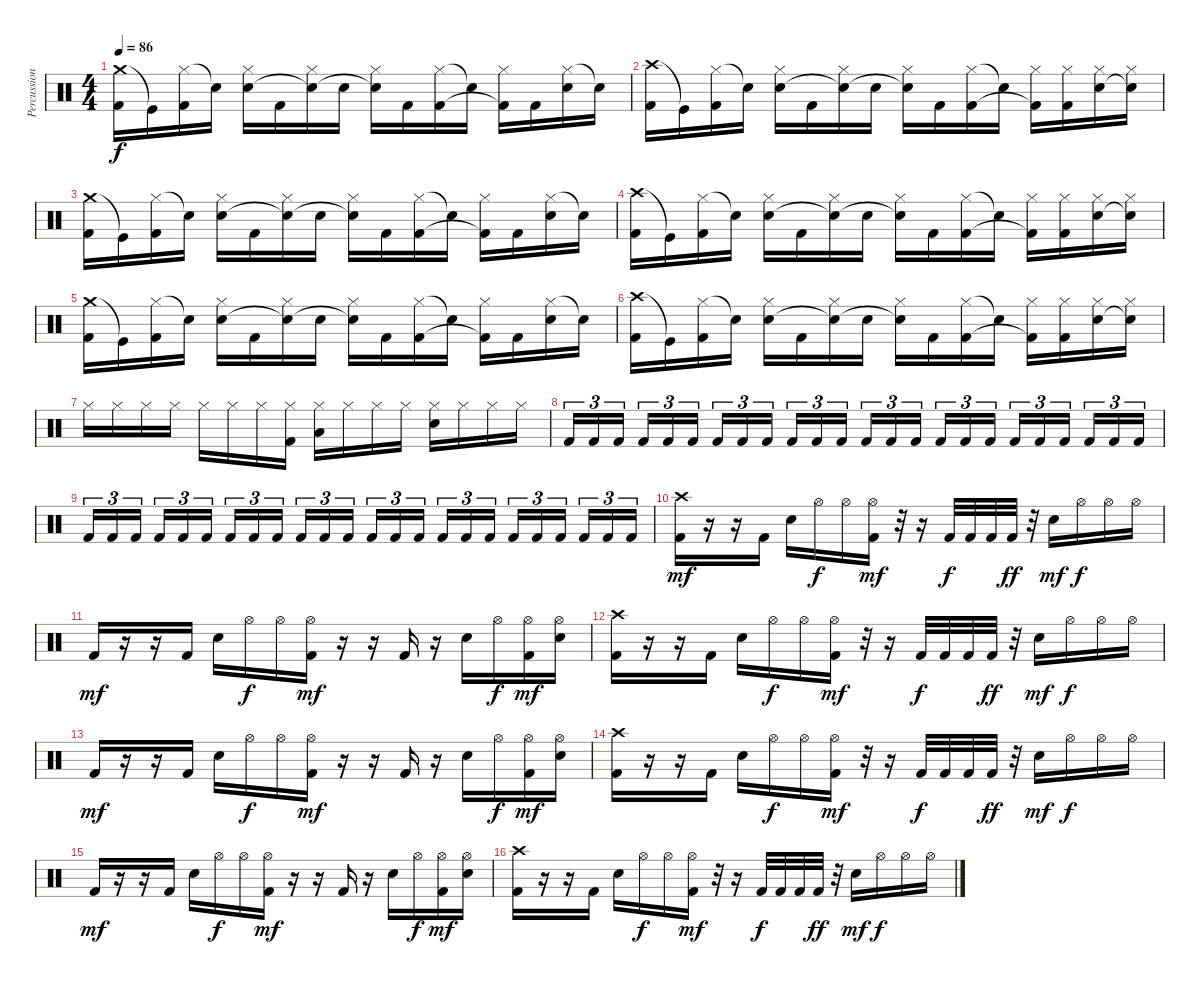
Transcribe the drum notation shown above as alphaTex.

\track ("Percussion" "Percussion") {instrument percussion}
\staff {score}
\articulation defaults
\ts (4 4)
\tempo 86
\clef neutral
\ks c
("Crash medium (hit)" "Kick (hit) 2").16{dy f} "Kick (hit)"{t}.16 ("Hi-Hat (closed)" "Kick (hit) 2").16 "Snare (hit)"{t}.16 ("Hi-Hat (closed)" "Electric Snare (hit)").16 "Kick (hit) 2".16 ("Hi-Hat (closed)" "Snare (hit)"{t}).16 "Electric Snare (hit)".16 ("Hi-Hat (closed)" "Snare (hit)"{t}).16 "Kick (hit) 2".16 ("Hi-Hat (closed)" "Kick (hit) 2").16 "Snare (hit)"{t}.16 ("Hi-Hat (closed)" "Kick (hit) 2"{t}).16 "Kick (hit) 2".16 ("Hi-Hat (closed)" "Electric Snare (hit)").16 "Snare (hit)"{t}.16 |
("Crash high (hit)" "Kick (hit) 2").16 "Kick (hit)"{t}.16 ("Hi-Hat (closed)" "Kick (hit) 2").16 "Snare (hit)"{t}.16 ("Hi-Hat (closed)" "Electric Snare (hit)").16 "Kick (hit) 2".16 ("Hi-Hat (closed)" "Snare (hit)"{t}).16 "Electric Snare (hit)".16 ("Hi-Hat (closed)" "Snare (hit)"{t}).16 "Kick (hit) 2".16 ("Hi-Hat (closed)" "Kick (hit) 2").16 "Snare (hit)"{t}.16 ("Hi-Hat (closed)" "Kick (hit) 2"{t}).16 ("Hi-Hat (closed)" "Kick (hit) 2").16 ("Hi-Hat (closed)" "Electric Snare (hit)").16 ("Hi-Hat (closed)" "Snare (hit)"{t}).16 |
("Crash medium (hit)" "Kick (hit) 2").16 "Kick (hit)"{t}.16 ("Hi-Hat (closed)" "Kick (hit) 2").16 "Snare (hit)"{t}.16 ("Hi-Hat (closed)" "Electric Snare (hit)").16 "Kick (hit) 2".16 ("Hi-Hat (closed)" "Snare (hit)"{t}).16 "Electric Snare (hit)".16 ("Hi-Hat (closed)" "Snare (hit)"{t}).16 "Kick (hit) 2".16 ("Hi-Hat (closed)" "Kick (hit) 2").16 "Snare (hit)"{t}.16 ("Hi-Hat (closed)" "Kick (hit) 2"{t}).16 "Kick (hit) 2".16 ("Hi-Hat (closed)" "Electric Snare (hit)").16 "Snare (hit)"{t}.16 |
("Crash high (hit)" "Kick (hit) 2").16 "Kick (hit)"{t}.16 ("Hi-Hat (closed)" "Kick (hit) 2").16 "Snare (hit)"{t}.16 ("Hi-Hat (closed)" "Electric Snare (hit)").16 "Kick (hit) 2".16 ("Hi-Hat (closed)" "Snare (hit)"{t}).16 "Electric Snare (hit)".16 ("Hi-Hat (closed)" "Snare (hit)"{t}).16 "Kick (hit) 2".16 ("Hi-Hat (closed)" "Kick (hit) 2").16 "Snare (hit)"{t}.16 ("Hi-Hat (closed)" "Kick (hit) 2"{t}).16 ("Hi-Hat (closed)" "Kick (hit) 2").16 ("Hi-Hat (closed)" "Electric Snare (hit)").16 ("Hi-Hat (closed)" "Snare (hit)"{t}).16 |
("Crash medium (hit)" "Kick (hit) 2").16 "Kick (hit)"{t}.16 ("Hi-Hat (closed)" "Kick (hit) 2").16 "Snare (hit)"{t}.16 ("Hi-Hat (closed)" "Electric Snare (hit)").16 "Kick (hit) 2".16 ("Hi-Hat (closed)" "Snare (hit)"{t}).16 "Electric Snare (hit)".16 ("Hi-Hat (closed)" "Snare (hit)"{t}).16 "Kick (hit) 2".16 ("Hi-Hat (closed)" "Kick (hit) 2").16 "Snare (hit)"{t}.16 ("Hi-Hat (closed)" "Kick (hit) 2"{t}).16 "Kick (hit) 2".16 ("Hi-Hat (closed)" "Electric Snare (hit)").16 "Snare (hit)"{t}.16 |
("Crash high (hit)" "Kick (hit) 2").16 "Kick (hit)"{t}.16 ("Hi-Hat (closed)" "Kick (hit) 2").16 "Snare (hit)"{t}.16 ("Hi-Hat (closed)" "Electric Snare (hit)").16 "Kick (hit) 2".16 ("Hi-Hat (closed)" "Snare (hit)"{t}).16 "Electric Snare (hit)".16 ("Hi-Hat (closed)" "Snare (hit)"{t}).16 "Kick (hit) 2".16 ("Hi-Hat (closed)" "Kick (hit) 2").16 "Snare (hit)"{t}.16 ("Hi-Hat (closed)" "Kick (hit) 2"{t}).16 ("Hi-Hat (closed)" "Kick (hit) 2").16 ("Hi-Hat (closed)" "Electric Snare (hit)").16 ("Hi-Hat (closed)" "Snare (hit)"{t}).16 |
"Hi-Hat (closed)".16 "Hi-Hat (closed)".16 "Hi-Hat (closed)".16 "Hi-Hat (closed)".16 "Hi-Hat (closed)".16 "Hi-Hat (closed)".16 "Hi-Hat (closed)".16 ("Hi-Hat (closed)" "Kick (hit) 2").16 ("Hi-Hat (closed)" "Low Tom (hit)").16 "Hi-Hat (closed)".16 "Hi-Hat (closed)".16 "Hi-Hat (closed)".16 ("Hi-Hat (closed)" "Electric Snare (hit)").16 "Hi-Hat (closed)".16 "Hi-Hat (closed)".16 "Hi-Hat (closed)".16 |
"Kick (hit) 2".16{tu (3 2)} "Kick (hit) 2".16{tu (3 2)} "Kick (hit) 2".16{tu (3 2)} "Kick (hit) 2".16{tu (3 2)} "Kick (hit) 2".16{tu (3 2)} "Kick (hit) 2".16{tu (3 2)} "Kick (hit) 2".16{tu (3 2)} "Kick (hit) 2".16{tu (3 2)} "Kick (hit) 2".16{tu (3 2)} "Kick (hit) 2".16{tu (3 2)} "Kick (hit) 2".16{tu (3 2)} "Kick (hit) 2".16{tu (3 2)} "Kick (hit) 2".16{tu (3 2)} "Kick (hit) 2".16{tu (3 2)} "Kick (hit) 2".16{tu (3 2)} "Kick (hit) 2".16{tu (3 2)} "Kick (hit) 2".16{tu (3 2)} "Kick (hit) 2".16{tu (3 2)} "Kick (hit) 2".16{tu (3 2)} "Kick (hit) 2".16{tu (3 2)} "Kick (hit) 2".16{tu (3 2)} "Kick (hit) 2".16{tu (3 2)} "Kick (hit) 2".16{tu (3 2)} "Kick (hit) 2".16{tu (3 2)} |
"Kick (hit) 2".16{tu (3 2)} "Kick (hit) 2".16{tu (3 2)} "Kick (hit) 2".16{tu (3 2)} "Kick (hit) 2".16{tu (3 2)} "Kick (hit) 2".16{tu (3 2)} "Kick (hit) 2".16{tu (3 2)} "Kick (hit) 2".16{tu (3 2)} "Kick (hit) 2".16{tu (3 2)} "Kick (hit) 2".16{tu (3 2)} "Kick (hit) 2".16{tu (3 2)} "Kick (hit) 2".16{tu (3 2)} "Kick (hit) 2".16{tu (3 2)} "Kick (hit) 2".16{tu (3 2)} "Kick (hit) 2".16{tu (3 2)} "Kick (hit) 2".16{tu (3 2)} "Kick (hit) 2".16{tu (3 2)} "Kick (hit) 2".16{tu (3 2)} "Kick (hit) 2".16{tu (3 2)} "Kick (hit) 2".16{tu (3 2)} "Kick (hit) 2".16{tu (3 2)} "Kick (hit) 2".16{tu (3 2)} "Kick (hit) 2".16{tu (3 2)} "Kick (hit) 2".16{tu (3 2)} "Kick (hit) 2".16{tu (3 2)} |
("Crash high (hit)" "Kick (hit) 2").16{dy mf} r.16 r.16 "Kick (hit) 2".16 "Electric Snare (hit)".16 "Hi-Hat (open)".16{dy f} "Hi-Hat (open)".16 ("Hi-Hat (open)" "Kick (hit) 2").16{dy mf} r.32 r.16 "Kick (hit) 2".32{dy f} "Kick (hit) 2".32 "Kick (hit) 2".32 "Kick (hit) 2".32{dy ff} r.32 "Electric Snare (hit)".16{dy mf} "Hi-Hat (open)".16{dy f} "Hi-Hat (open)".16 "Hi-Hat (open)".16 |
"Kick (hit) 2".16{dy mf} r.16 r.16 "Kick (hit) 2".16 "Electric Snare (hit)".16 "Hi-Hat (open)".16{dy f} "Hi-Hat (open)".16 ("Hi-Hat (open)" "Kick (hit) 2").16{dy mf} r.16 r.16 "Kick (hit) 2".16 r.16 "Electric Snare (hit)".16 "Hi-Hat (open)".16{dy f} ("Hi-Hat (open)" "Kick (hit) 2").16{dy mf} ("Hi-Hat (open)" "Electric Snare (hit)").16 |
("Crash high (hit)" "Kick (hit) 2").16 r.16 r.16 "Kick (hit) 2".16 "Electric Snare (hit)".16 "Hi-Hat (open)".16{dy f} "Hi-Hat (open)".16 ("Hi-Hat (open)" "Kick (hit) 2").16{dy mf} r.32 r.16 "Kick (hit) 2".32{dy f} "Kick (hit) 2".32 "Kick (hit) 2".32 "Kick (hit) 2".32{dy ff} r.32 "Electric Snare (hit)".16{dy mf} "Hi-Hat (open)".16{dy f} "Hi-Hat (open)".16 "Hi-Hat (open)".16 |
"Kick (hit) 2".16{dy mf} r.16 r.16 "Kick (hit) 2".16 "Electric Snare (hit)".16 "Hi-Hat (open)".16{dy f} "Hi-Hat (open)".16 ("Hi-Hat (open)" "Kick (hit) 2").16{dy mf} r.16 r.16 "Kick (hit) 2".16 r.16 "Electric Snare (hit)".16 "Hi-Hat (open)".16{dy f} ("Hi-Hat (open)" "Kick (hit) 2").16{dy mf} ("Hi-Hat (open)" "Electric Snare (hit)").16 |
("Crash high (hit)" "Kick (hit) 2").16 r.16 r.16 "Kick (hit) 2".16 "Electric Snare (hit)".16 "Hi-Hat (open)".16{dy f} "Hi-Hat (open)".16 ("Hi-Hat (open)" "Kick (hit) 2").16{dy mf} r.32 r.16 "Kick (hit) 2".32{dy f} "Kick (hit) 2".32 "Kick (hit) 2".32 "Kick (hit) 2".32{dy ff} r.32 "Electric Snare (hit)".16{dy mf} "Hi-Hat (open)".16{dy f} "Hi-Hat (open)".16 "Hi-Hat (open)".16 |
"Kick (hit) 2".16{dy mf} r.16 r.16 "Kick (hit) 2".16 "Electric Snare (hit)".16 "Hi-Hat (open)".16{dy f} "Hi-Hat (open)".16 ("Hi-Hat (open)" "Kick (hit) 2").16{dy mf} r.16 r.16 "Kick (hit) 2".16 r.16 "Electric Snare (hit)".16 "Hi-Hat (open)".16{dy f} ("Hi-Hat (open)" "Kick (hit) 2").16{dy mf} ("Hi-Hat (open)" "Electric Snare (hit)").16 |
("Crash high (hit)" "Kick (hit) 2").16 r.16 r.16 "Kick (hit) 2".16 "Electric Snare (hit)".16 "Hi-Hat (open)".16{dy f} "Hi-Hat (open)".16 ("Hi-Hat (open)" "Kick (hit) 2").16{dy mf} r.32 r.16 "Kick (hit) 2".32{dy f} "Kick (hit) 2".32 "Kick (hit) 2".32 "Kick (hit) 2".32{dy ff} r.32 "Electric Snare (hit)".16{dy mf} "Hi-Hat (open)".16{dy f} "Hi-Hat (open)".16 "Hi-Hat (open)".16
